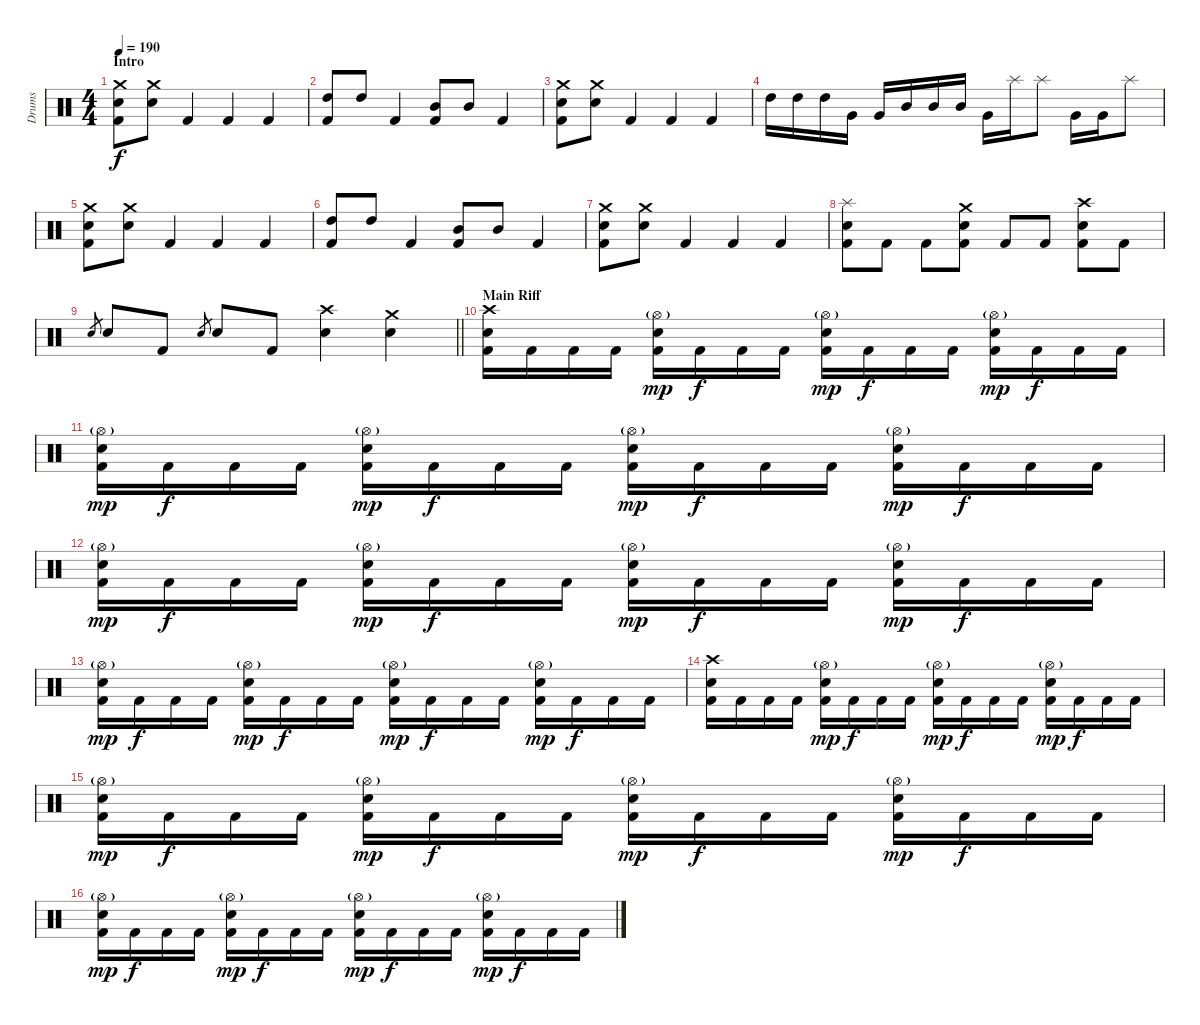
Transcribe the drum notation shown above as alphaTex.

\track ("Drums" "Drums") {instrument percussion}
\staff {score}
\articulation defaults
\ts (4 4)
\section ("" "Intro")
\tempo 190
\clef neutral
\ks c
("Crash medium (hit)" "Electric Snare (hit)" "Kick (hit) 2").8{dy f} ("Crash medium (hit)" "Electric Snare (hit)").8 "Kick (hit) 2".4 "Kick (hit) 2".4 "Kick (hit) 2".4 |
("High Tom (hit)" "Kick (hit) 2").8 "High Tom (hit)".8 "Kick (hit) 2".4 ("Mid Tom (hit)" "Kick (hit) 2").8 "Mid Tom (hit)".8 "Kick (hit) 2".4 |
("Crash medium (hit)" "Electric Snare (hit)" "Kick (hit) 2").8 ("Crash medium (hit)" "Electric Snare (hit)").8 "Kick (hit) 2".4 "Kick (hit) 2".4 "Kick (hit) 2".4 |
"High Tom (hit)".16 "High Tom (hit)".16 "High Tom (hit)".16 "Very Low Tom (hit)".16 "Very Low Tom (hit)".16 "Mid Tom (hit)".16 "Mid Tom (hit)".16 "Mid Tom (hit)".16 "Very Low Tom (hit)".16 "Splash (hit)".16 "Splash (hit)".8 "Very Low Tom (hit)".16 "Very Low Tom (hit)".16 "Splash (hit)".8 |
("Crash medium (hit)" "Electric Snare (hit)" "Kick (hit) 2").8 ("Crash medium (hit)" "Electric Snare (hit)").8 "Kick (hit) 2".4 "Kick (hit) 2".4 "Kick (hit) 2".4 |
("High Tom (hit)" "Kick (hit) 2").8 "High Tom (hit)".8 "Kick (hit) 2".4 ("Mid Tom (hit)" "Kick (hit) 2").8 "Mid Tom (hit)".8 "Kick (hit) 2".4 |
("Crash medium (hit)" "Electric Snare (hit)" "Kick (hit) 2").8 ("Crash medium (hit)" "Electric Snare (hit)").8 "Kick (hit) 2".4 "Kick (hit) 2".4 "Kick (hit) 2".4 |
("Splash (hit)" "Electric Snare (hit)" "Kick (hit) 2").8 "Kick (hit) 2".8 "Kick (hit) 2".8 ("Crash medium (hit)" "Electric Snare (hit)" "Kick (hit) 2").8 "Kick (hit) 2".8 "Kick (hit) 2".8 ("Crash high (hit)" "Electric Snare (hit)" "Kick (hit) 2").8 "Kick (hit) 2".8 |
\barLineRight lightlight "Electric Snare (hit)".8{gr} "Electric Snare (hit)".8 "Kick (hit) 2".8 "Electric Snare (hit)".8{gr} "Electric Snare (hit)".8 "Kick (hit) 2".8
("Crash high (hit)" "Electric Snare (hit)").4 ("Crash medium (hit)" "Electric Snare (hit)").4 |
\section ("" "Main Riff")
("Crash high (hit)" "Electric Snare (hit)" "Kick (hit) 2").16 "Kick (hit) 2".16 "Kick (hit) 2".16 "Kick (hit) 2".16 ("Hi-Hat (open)"{g} "Electric Snare (hit)" "Kick (hit) 2").16{dy mp} "Kick (hit) 2".16{dy f} "Kick (hit) 2".16 "Kick (hit) 2".16 ("Hi-Hat (open)"{g} "Electric Snare (hit)" "Kick (hit) 2").16{dy mp} "Kick (hit) 2".16{dy f} "Kick (hit) 2".16 "Kick (hit) 2".16 ("Hi-Hat (open)"{g} "Electric Snare (hit)" "Kick (hit) 2").16{dy mp} "Kick (hit) 2".16{dy f} "Kick (hit) 2".16 "Kick (hit) 2".16 |
("Hi-Hat (open)"{g} "Electric Snare (hit)" "Kick (hit) 2").16{dy mp} "Kick (hit) 2".16{dy f} "Kick (hit) 2".16 "Kick (hit) 2".16 ("Hi-Hat (open)"{g} "Electric Snare (hit)" "Kick (hit) 2").16{dy mp} "Kick (hit) 2".16{dy f} "Kick (hit) 2".16 "Kick (hit) 2".16 ("Hi-Hat (open)"{g} "Electric Snare (hit)" "Kick (hit) 2").16{dy mp} "Kick (hit) 2".16{dy f} "Kick (hit) 2".16 "Kick (hit) 2".16 ("Hi-Hat (open)"{g} "Electric Snare (hit)" "Kick (hit) 2").16{dy mp} "Kick (hit) 2".16{dy f} "Kick (hit) 2".16 "Kick (hit) 2".16 |
("Hi-Hat (open)"{g} "Electric Snare (hit)" "Kick (hit) 2").16{dy mp} "Kick (hit) 2".16{dy f} "Kick (hit) 2".16 "Kick (hit) 2".16 ("Hi-Hat (open)"{g} "Electric Snare (hit)" "Kick (hit) 2").16{dy mp} "Kick (hit) 2".16{dy f} "Kick (hit) 2".16 "Kick (hit) 2".16 ("Hi-Hat (open)"{g} "Electric Snare (hit)" "Kick (hit) 2").16{dy mp} "Kick (hit) 2".16{dy f} "Kick (hit) 2".16 "Kick (hit) 2".16 ("Hi-Hat (open)"{g} "Electric Snare (hit)" "Kick (hit) 2").16{dy mp} "Kick (hit) 2".16{dy f} "Kick (hit) 2".16 "Kick (hit) 2".16 |
("Hi-Hat (open)"{g} "Electric Snare (hit)" "Kick (hit) 2").16{dy mp} "Kick (hit) 2".16{dy f} "Kick (hit) 2".16 "Kick (hit) 2".16 ("Hi-Hat (open)"{g} "Electric Snare (hit)" "Kick (hit) 2").16{dy mp} "Kick (hit) 2".16{dy f} "Kick (hit) 2".16 "Kick (hit) 2".16 ("Hi-Hat (open)"{g} "Electric Snare (hit)" "Kick (hit) 2").16{dy mp} "Kick (hit) 2".16{dy f} "Kick (hit) 2".16 "Kick (hit) 2".16 ("Hi-Hat (open)"{g} "Electric Snare (hit)" "Kick (hit) 2").16{dy mp} "Kick (hit) 2".16{dy f} "Kick (hit) 2".16 "Kick (hit) 2".16 |
("Crash high (hit)" "Electric Snare (hit)" "Kick (hit) 2").16 "Kick (hit) 2".16 "Kick (hit) 2".16 "Kick (hit) 2".16 ("Hi-Hat (open)"{g} "Electric Snare (hit)" "Kick (hit) 2").16{dy mp} "Kick (hit) 2".16{dy f} "Kick (hit) 2".16 "Kick (hit) 2".16 ("Hi-Hat (open)"{g} "Electric Snare (hit)" "Kick (hit) 2").16{dy mp} "Kick (hit) 2".16{dy f} "Kick (hit) 2".16 "Kick (hit) 2".16 ("Hi-Hat (open)"{g} "Electric Snare (hit)" "Kick (hit) 2").16{dy mp} "Kick (hit) 2".16{dy f} "Kick (hit) 2".16 "Kick (hit) 2".16 |
("Hi-Hat (open)"{g} "Electric Snare (hit)" "Kick (hit) 2").16{dy mp} "Kick (hit) 2".16{dy f} "Kick (hit) 2".16 "Kick (hit) 2".16 ("Hi-Hat (open)"{g} "Electric Snare (hit)" "Kick (hit) 2").16{dy mp} "Kick (hit) 2".16{dy f} "Kick (hit) 2".16 "Kick (hit) 2".16 ("Hi-Hat (open)"{g} "Electric Snare (hit)" "Kick (hit) 2").16{dy mp} "Kick (hit) 2".16{dy f} "Kick (hit) 2".16 "Kick (hit) 2".16 ("Hi-Hat (open)"{g} "Electric Snare (hit)" "Kick (hit) 2").16{dy mp} "Kick (hit) 2".16{dy f} "Kick (hit) 2".16 "Kick (hit) 2".16 |
("Hi-Hat (open)"{g} "Electric Snare (hit)" "Kick (hit) 2").16{dy mp} "Kick (hit) 2".16{dy f} "Kick (hit) 2".16 "Kick (hit) 2".16 ("Hi-Hat (open)"{g} "Electric Snare (hit)" "Kick (hit) 2").16{dy mp} "Kick (hit) 2".16{dy f} "Kick (hit) 2".16 "Kick (hit) 2".16 ("Hi-Hat (open)"{g} "Electric Snare (hit)" "Kick (hit) 2").16{dy mp} "Kick (hit) 2".16{dy f} "Kick (hit) 2".16 "Kick (hit) 2".16 ("Hi-Hat (open)"{g} "Electric Snare (hit)" "Kick (hit) 2").16{dy mp} "Kick (hit) 2".16{dy f} "Kick (hit) 2".16 "Kick (hit) 2".16
